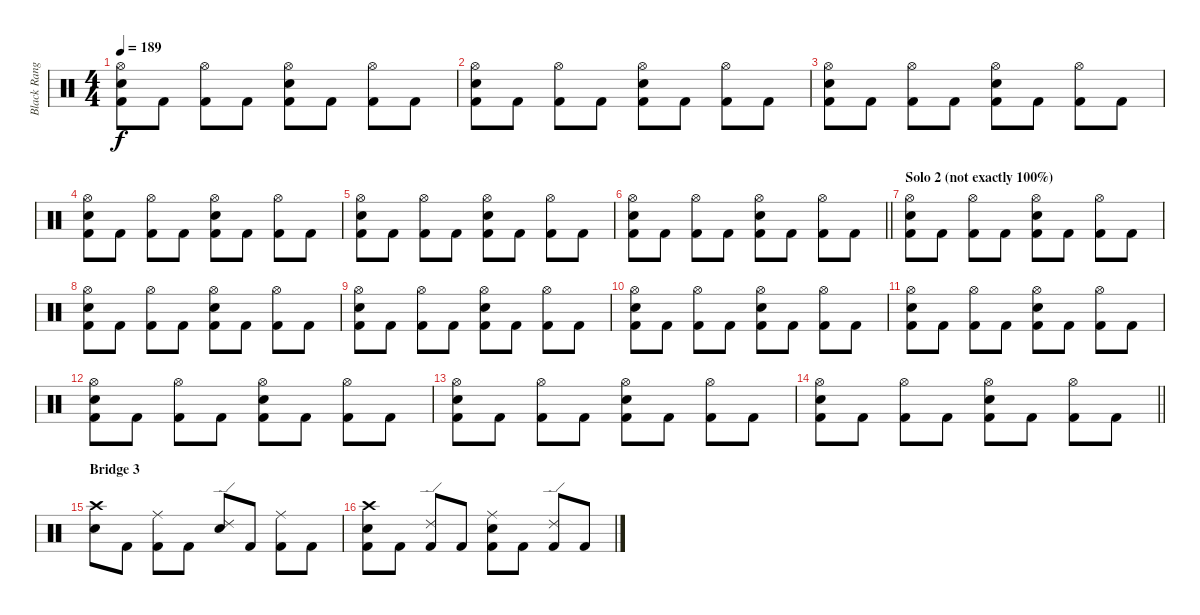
\track ("Black Ranger (Drums)" "Black Rang") {instrument percussion}
\staff {score}
\articulation defaults
\ts (4 4)
\tempo 189
\clef neutral
\ks c
("Kick (hit) 2" "Snare (hit) 2" "Hi-Hat (open)").8{dy f} "Kick (hit) 2".8 ("Kick (hit) 2" "Hi-Hat (open)").8 "Kick (hit) 2".8 ("Kick (hit) 2" "Snare (hit) 2" "Hi-Hat (open)").8 "Kick (hit) 2".8 ("Kick (hit) 2" "Hi-Hat (open)").8 "Kick (hit) 2".8 |
("Kick (hit) 2" "Snare (hit) 2" "Hi-Hat (open)").8 "Kick (hit) 2".8 ("Kick (hit) 2" "Hi-Hat (open)").8 "Kick (hit) 2".8 ("Kick (hit) 2" "Snare (hit) 2" "Hi-Hat (open)").8 "Kick (hit) 2".8 ("Kick (hit) 2" "Hi-Hat (open)").8 "Kick (hit) 2".8 |
("Kick (hit) 2" "Snare (hit) 2" "Hi-Hat (open)").8 "Kick (hit) 2".8 ("Kick (hit) 2" "Hi-Hat (open)").8 "Kick (hit) 2".8 ("Kick (hit) 2" "Snare (hit) 2" "Hi-Hat (open)").8 "Kick (hit) 2".8 ("Kick (hit) 2" "Hi-Hat (open)").8 "Kick (hit) 2".8 |
("Kick (hit) 2" "Snare (hit) 2" "Hi-Hat (open)").8 "Kick (hit) 2".8 ("Kick (hit) 2" "Hi-Hat (open)").8 "Kick (hit) 2".8 ("Kick (hit) 2" "Snare (hit) 2" "Hi-Hat (open)").8 "Kick (hit) 2".8 ("Kick (hit) 2" "Hi-Hat (open)").8 "Kick (hit) 2".8 |
("Kick (hit) 2" "Snare (hit) 2" "Hi-Hat (open)").8 "Kick (hit) 2".8 ("Kick (hit) 2" "Hi-Hat (open)").8 "Kick (hit) 2".8 ("Kick (hit) 2" "Snare (hit) 2" "Hi-Hat (open)").8 "Kick (hit) 2".8 ("Kick (hit) 2" "Hi-Hat (open)").8 "Kick (hit) 2".8 |
\barLineRight lightlight
("Kick (hit) 2" "Snare (hit) 2" "Hi-Hat (open)").8 "Kick (hit) 2".8 ("Kick (hit) 2" "Hi-Hat (open)").8 "Kick (hit) 2".8 ("Kick (hit) 2" "Snare (hit) 2" "Hi-Hat (open)").8 "Kick (hit) 2".8 ("Kick (hit) 2" "Hi-Hat (open)").8 "Kick (hit) 2".8 |
\section ("" "Solo 2 (not exactly 100%)")
("Kick (hit) 2" "Snare (hit) 2" "Hi-Hat (open)").8 "Kick (hit) 2".8 ("Kick (hit) 2" "Hi-Hat (open)").8 "Kick (hit) 2".8 ("Kick (hit) 2" "Snare (hit) 2" "Hi-Hat (open)").8 "Kick (hit) 2".8 ("Kick (hit) 2" "Hi-Hat (open)").8 "Kick (hit) 2".8 |
("Kick (hit) 2" "Snare (hit) 2" "Hi-Hat (open)").8 "Kick (hit) 2".8 ("Kick (hit) 2" "Hi-Hat (open)").8 "Kick (hit) 2".8 ("Kick (hit) 2" "Snare (hit) 2" "Hi-Hat (open)").8 "Kick (hit) 2".8 ("Kick (hit) 2" "Hi-Hat (open)").8 "Kick (hit) 2".8 |
("Kick (hit) 2" "Snare (hit) 2" "Hi-Hat (open)").8 "Kick (hit) 2".8 ("Kick (hit) 2" "Hi-Hat (open)").8 "Kick (hit) 2".8 ("Kick (hit) 2" "Snare (hit) 2" "Hi-Hat (open)").8 "Kick (hit) 2".8 ("Kick (hit) 2" "Hi-Hat (open)").8 "Kick (hit) 2".8 |
("Kick (hit) 2" "Snare (hit) 2" "Hi-Hat (open)").8 "Kick (hit) 2".8 ("Kick (hit) 2" "Hi-Hat (open)").8 "Kick (hit) 2".8 ("Kick (hit) 2" "Snare (hit) 2" "Hi-Hat (open)").8 "Kick (hit) 2".8 ("Kick (hit) 2" "Hi-Hat (open)").8 "Kick (hit) 2".8 |
("Kick (hit) 2" "Snare (hit) 2" "Hi-Hat (open)").8 "Kick (hit) 2".8 ("Kick (hit) 2" "Hi-Hat (open)").8 "Kick (hit) 2".8 ("Kick (hit) 2" "Snare (hit) 2" "Hi-Hat (open)").8 "Kick (hit) 2".8 ("Kick (hit) 2" "Hi-Hat (open)").8 "Kick (hit) 2".8 |
("Kick (hit) 2" "Snare (hit) 2" "Hi-Hat (open)").8 "Kick (hit) 2".8 ("Kick (hit) 2" "Hi-Hat (open)").8 "Kick (hit) 2".8 ("Kick (hit) 2" "Snare (hit) 2" "Hi-Hat (open)").8 "Kick (hit) 2".8 ("Kick (hit) 2" "Hi-Hat (open)").8 "Kick (hit) 2".8 |
("Kick (hit) 2" "Snare (hit) 2" "Hi-Hat (open)").8 "Kick (hit) 2".8 ("Kick (hit) 2" "Hi-Hat (open)").8 "Kick (hit) 2".8 ("Kick (hit) 2" "Snare (hit) 2" "Hi-Hat (open)").8 "Kick (hit) 2".8 ("Kick (hit) 2" "Hi-Hat (open)").8 "Kick (hit) 2".8 |
\barLineRight lightlight
("Kick (hit) 2" "Snare (hit) 2" "Hi-Hat (open)").8 "Kick (hit) 2".8 ("Kick (hit) 2" "Hi-Hat (open)").8 "Kick (hit) 2".8 ("Kick (hit) 2" "Snare (hit) 2" "Hi-Hat (open)").8 "Kick (hit) 2".8 ("Kick (hit) 2" "Hi-Hat (open)").8 "Kick (hit) 2".8 |
\section ("" "Bridge 3")
("Snare (hit) 2" "Crash high (hit)").8 "Kick (hit) 2".8 ("Kick (hit) 2" "Ride (middle)").8 "Kick (hit) 2".8 ("Snare (hit) 2" "Ride (edge) 2").8 "Kick (hit) 2".8 ("Kick (hit) 2" "Ride (middle)").8 "Kick (hit) 2".8 |
("Kick (hit) 2" "Snare (hit) 2" "Crash high (hit)").8 "Kick (hit) 2".8 ("Kick (hit) 2" "Ride (edge) 2").8 "Kick (hit) 2".8 ("Kick (hit) 2" "Snare (hit) 2" "Ride (middle)").8 "Kick (hit) 2".8 ("Kick (hit) 2" "Ride (edge) 2").8 "Kick (hit) 2".8
